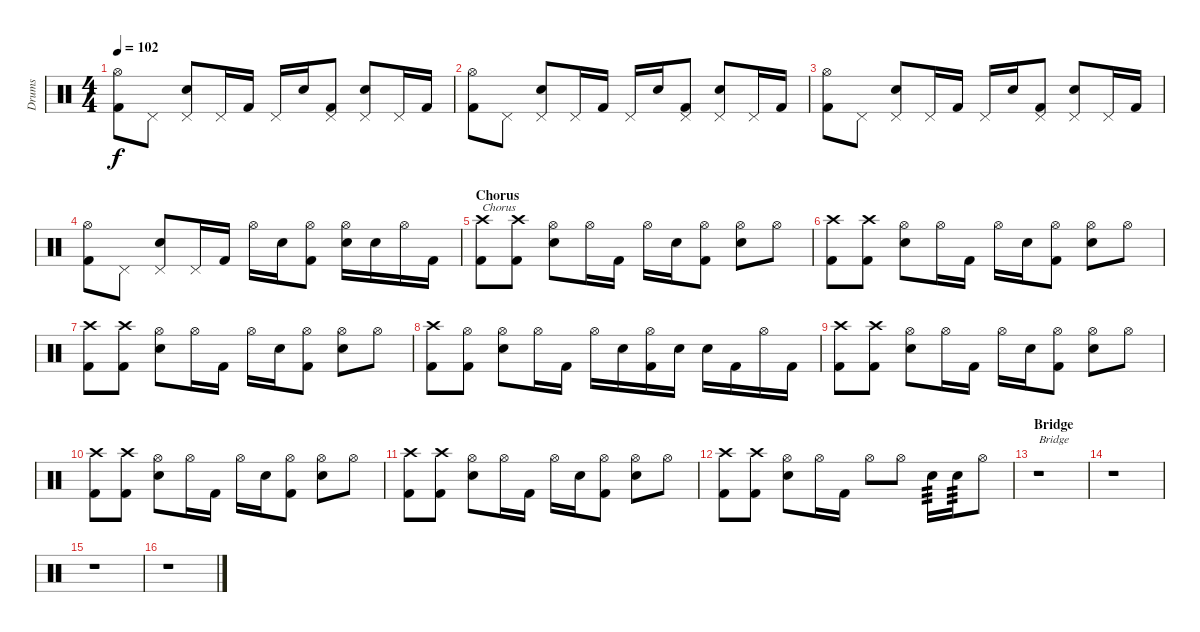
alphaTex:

\track ("Drums" "Drums") {instrument percussion}
\staff {score}
\articulation defaults
\ts (4 4)
\tempo 102
\clef neutral
\ks c
("Hi-Hat (open)" "Kick (hit) 2").8{dy f} "Pedal Hi-Hat (hit)".8 ("Pedal Hi-Hat (hit)" "Electric Snare (hit)").8 "Pedal Hi-Hat (hit)".16 "Kick (hit) 2".16 "Pedal Hi-Hat (hit)".16 "Electric Snare (hit)".16 ("Pedal Hi-Hat (hit)" "Kick (hit) 2").8 ("Pedal Hi-Hat (hit)" "Electric Snare (hit)").8 "Pedal Hi-Hat (hit)".16 "Kick (hit) 2".16 |
("Hi-Hat (open)" "Kick (hit) 2").8 "Pedal Hi-Hat (hit)".8 ("Pedal Hi-Hat (hit)" "Electric Snare (hit)").8 "Pedal Hi-Hat (hit)".16 "Kick (hit) 2".16 "Pedal Hi-Hat (hit)".16 "Electric Snare (hit)".16 ("Pedal Hi-Hat (hit)" "Kick (hit) 2").8 ("Pedal Hi-Hat (hit)" "Electric Snare (hit)").8 "Pedal Hi-Hat (hit)".16 "Kick (hit) 2".16 |
("Hi-Hat (open)" "Kick (hit) 2").8 "Pedal Hi-Hat (hit)".8 ("Pedal Hi-Hat (hit)" "Electric Snare (hit)").8 "Pedal Hi-Hat (hit)".16 "Kick (hit) 2".16 "Pedal Hi-Hat (hit)".16 "Electric Snare (hit)".16 ("Pedal Hi-Hat (hit)" "Kick (hit) 2").8 ("Pedal Hi-Hat (hit)" "Electric Snare (hit)").8 "Pedal Hi-Hat (hit)".16 "Kick (hit) 2".16 |
("Hi-Hat (open)" "Kick (hit) 2").8 "Pedal Hi-Hat (hit)".8 ("Pedal Hi-Hat (hit)" "Electric Snare (hit)").8 "Pedal Hi-Hat (hit)".16 "Kick (hit) 2".16 "Hi-Hat (open)".16 "Electric Snare (hit)".16 ("Hi-Hat (open)" "Kick (hit) 2").8 ("Hi-Hat (open)" "Electric Snare (hit)").16 "Electric Snare (hit)".16 "Hi-Hat (open)".16 "Kick (hit) 2".16 |
\section ("" "Chorus")
("Crash high (hit)" "Kick (hit) 2").8{txt "Chorus"} ("Crash high (hit)" "Kick (hit) 2").8 ("Hi-Hat (open)" "Electric Snare (hit)").8 "Hi-Hat (open)".16 "Kick (hit) 2".16 "Hi-Hat (open)".16 "Electric Snare (hit)".16 ("Hi-Hat (open)" "Kick (hit) 2").8 ("Hi-Hat (open)" "Electric Snare (hit)").8 "Hi-Hat (open)".8 |
("Crash high (hit)" "Kick (hit) 2").8 ("Crash high (hit)" "Kick (hit) 2").8 ("Hi-Hat (open)" "Electric Snare (hit)").8 "Hi-Hat (open)".16 "Kick (hit) 2".16 "Hi-Hat (open)".16 "Electric Snare (hit)".16 ("Hi-Hat (open)" "Kick (hit) 2").8 ("Hi-Hat (open)" "Electric Snare (hit)").8 "Hi-Hat (open)".8 |
("Crash high (hit)" "Kick (hit) 2").8 ("Crash high (hit)" "Kick (hit) 2").8 ("Hi-Hat (open)" "Electric Snare (hit)").8 "Hi-Hat (open)".16 "Kick (hit) 2".16 "Hi-Hat (open)".16 "Electric Snare (hit)".16 ("Hi-Hat (open)" "Kick (hit) 2").8 ("Hi-Hat (open)" "Electric Snare (hit)").8 "Hi-Hat (open)".8 |
("Crash high (hit)" "Kick (hit) 2").8 ("Hi-Hat (open)" "Kick (hit) 2").8 ("Hi-Hat (open)" "Electric Snare (hit)").8 "Hi-Hat (open)".16 "Kick (hit) 2".16 "Hi-Hat (open)".16 "Electric Snare (hit)".16 ("Hi-Hat (open)" "Kick (hit) 2").16 "Electric Snare (hit)".16 "Electric Snare (hit)".16 "Kick (hit) 2".16 "Hi-Hat (open)".16 "Kick (hit) 2".16 |
("Crash high (hit)" "Kick (hit) 2").8 ("Crash high (hit)" "Kick (hit) 2").8 ("Hi-Hat (open)" "Electric Snare (hit)").8 "Hi-Hat (open)".16 "Kick (hit) 2".16 "Hi-Hat (open)".16 "Electric Snare (hit)".16 ("Hi-Hat (open)" "Kick (hit) 2").8 ("Hi-Hat (open)" "Electric Snare (hit)").8 "Hi-Hat (open)".8 |
("Crash high (hit)" "Kick (hit) 2").8 ("Crash high (hit)" "Kick (hit) 2").8 ("Hi-Hat (open)" "Electric Snare (hit)").8 "Hi-Hat (open)".16 "Kick (hit) 2".16 "Hi-Hat (open)".16 "Electric Snare (hit)".16 ("Hi-Hat (open)" "Kick (hit) 2").8 ("Hi-Hat (open)" "Electric Snare (hit)").8 "Hi-Hat (open)".8 |
("Crash high (hit)" "Kick (hit) 2").8 ("Crash high (hit)" "Kick (hit) 2").8 ("Hi-Hat (open)" "Electric Snare (hit)").8 "Hi-Hat (open)".16 "Kick (hit) 2".16 "Hi-Hat (open)".16 "Electric Snare (hit)".16 ("Hi-Hat (open)" "Kick (hit) 2").8 ("Hi-Hat (open)" "Electric Snare (hit)").8 "Hi-Hat (open)".8 |
("Crash high (hit)" "Kick (hit) 2").8 ("Crash high (hit)" "Kick (hit) 2").8 ("Hi-Hat (open)" "Electric Snare (hit)").8 "Hi-Hat (open)".16 "Kick (hit) 2".16 "Hi-Hat (open)".8 "Hi-Hat (open)".8 "Electric Snare (hit)".16{tp 3} "Electric Snare (hit)".16{tp 3} "Hi-Hat (open)".8 |
\section ("" "Bridge")
r.1{txt "Bridge"} |
r.1 |
r.1 |
r.1
